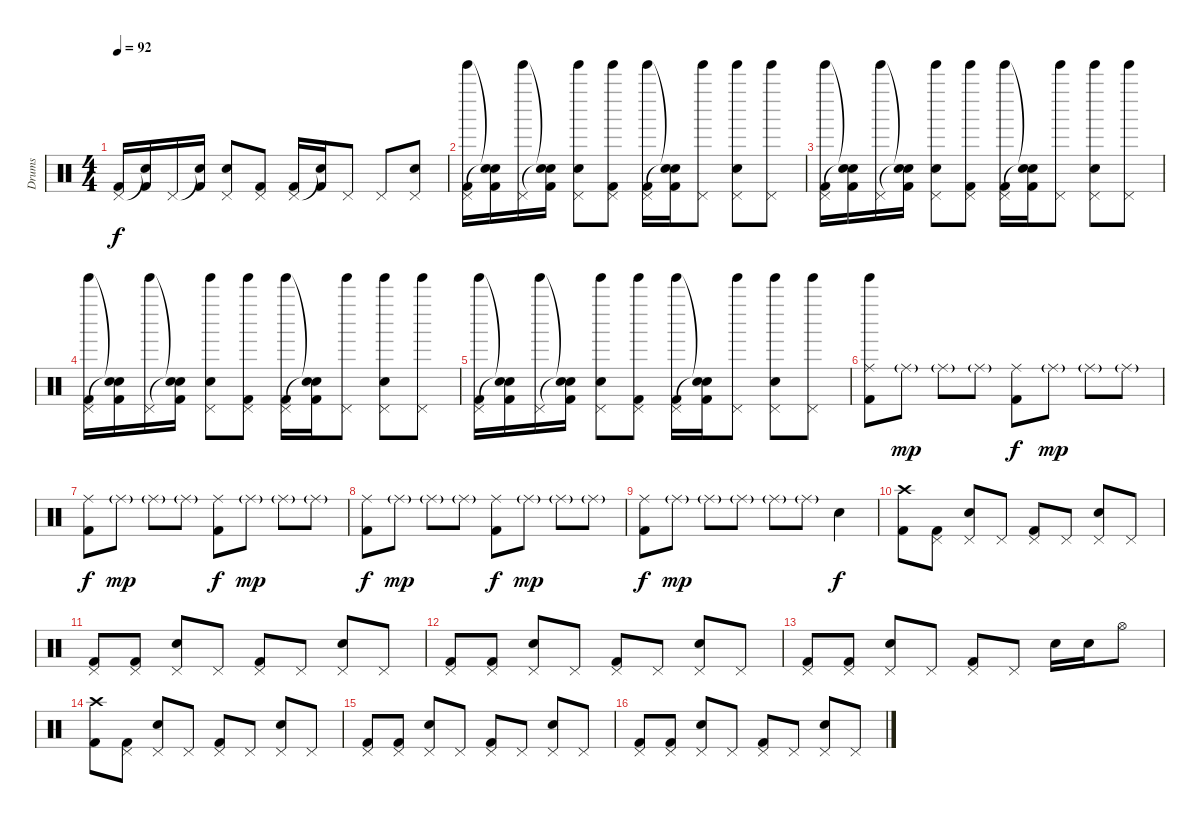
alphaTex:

\track ("Drums" "Drums") {instrument percussion}
\staff {score}
\articulation defaults
\ts (4 4)
\tempo 92
\clef neutral
\ks c
("Pedal Hi-Hat (hit)" "Kick (hit) 2").16{dy f} ("Snare (hit)"{t} "Kick (hit) 2").16 "Pedal Hi-Hat (hit)".16 ("Snare (hit)"{t} "Kick (hit) 2").16 ("Pedal Hi-Hat (hit)" "Electric Snare (hit)").8 ("Pedal Hi-Hat (hit)" "Kick (hit) 2").8 ("Pedal Hi-Hat (hit)" "Kick (hit) 2").16 ("Snare (hit)"{t} "Kick (hit) 2").16 "Pedal Hi-Hat (hit)".8 "Pedal Hi-Hat (hit)".8 ("Pedal Hi-Hat (hit)" "Electric Snare (hit)").8 |
("Tinkle Bell (hit)" "Pedal Hi-Hat (hit)" "Kick (hit) 2").16 ("Snare (hit)"{t} "Snare (hit)"{t} "Kick (hit) 2").16 ("Tinkle Bell (hit)" "Pedal Hi-Hat (hit)").16 ("Snare (hit)"{t} "Snare (hit)"{t} "Kick (hit) 2").16 ("Tinkle Bell (hit)" "Pedal Hi-Hat (hit)" "Electric Snare (hit)").8 ("Tinkle Bell (hit)" "Pedal Hi-Hat (hit)" "Kick (hit) 2").8 ("Tinkle Bell (hit)" "Pedal Hi-Hat (hit)" "Kick (hit) 2").16 ("Snare (hit)"{t} "Snare (hit)"{t} "Kick (hit) 2").16 ("Tinkle Bell (hit)" "Pedal Hi-Hat (hit)").8 ("Tinkle Bell (hit)" "Pedal Hi-Hat (hit)" "Electric Snare (hit)").8 ("Tinkle Bell (hit)" "Pedal Hi-Hat (hit)").8 |
("Tinkle Bell (hit)" "Pedal Hi-Hat (hit)" "Kick (hit) 2").16 ("Snare (hit)"{t} "Snare (hit)"{t} "Kick (hit) 2").16 ("Tinkle Bell (hit)" "Pedal Hi-Hat (hit)").16 ("Snare (hit)"{t} "Snare (hit)"{t} "Kick (hit) 2").16 ("Tinkle Bell (hit)" "Pedal Hi-Hat (hit)" "Electric Snare (hit)").8 ("Tinkle Bell (hit)" "Pedal Hi-Hat (hit)" "Kick (hit) 2").8 ("Tinkle Bell (hit)" "Pedal Hi-Hat (hit)" "Kick (hit) 2").16 ("Snare (hit)"{t} "Snare (hit)"{t} "Kick (hit) 2").16 ("Tinkle Bell (hit)" "Pedal Hi-Hat (hit)").8 ("Tinkle Bell (hit)" "Pedal Hi-Hat (hit)" "Electric Snare (hit)").8 ("Tinkle Bell (hit)" "Pedal Hi-Hat (hit)").8 |
("Tinkle Bell (hit)" "Pedal Hi-Hat (hit)" "Kick (hit) 2").16 ("Snare (hit)"{t} "Snare (hit)"{t} "Kick (hit) 2").16 ("Tinkle Bell (hit)" "Pedal Hi-Hat (hit)").16 ("Snare (hit)"{t} "Snare (hit)"{t} "Kick (hit) 2").16 ("Tinkle Bell (hit)" "Pedal Hi-Hat (hit)" "Electric Snare (hit)").8 ("Tinkle Bell (hit)" "Pedal Hi-Hat (hit)" "Kick (hit) 2").8 ("Tinkle Bell (hit)" "Pedal Hi-Hat (hit)" "Kick (hit) 2").16 ("Snare (hit)"{t} "Snare (hit)"{t} "Kick (hit) 2").16 ("Tinkle Bell (hit)" "Pedal Hi-Hat (hit)").8 ("Tinkle Bell (hit)" "Pedal Hi-Hat (hit)" "Electric Snare (hit)").8 ("Tinkle Bell (hit)" "Pedal Hi-Hat (hit)").8 |
("Tinkle Bell (hit)" "Pedal Hi-Hat (hit)" "Kick (hit) 2").16 ("Snare (hit)"{t} "Snare (hit)"{t} "Kick (hit) 2").16 ("Tinkle Bell (hit)" "Pedal Hi-Hat (hit)").16 ("Snare (hit)"{t} "Snare (hit)"{t} "Kick (hit) 2").16 ("Tinkle Bell (hit)" "Pedal Hi-Hat (hit)" "Electric Snare (hit)").8 ("Tinkle Bell (hit)" "Pedal Hi-Hat (hit)" "Kick (hit) 2").8 ("Tinkle Bell (hit)" "Pedal Hi-Hat (hit)" "Kick (hit) 2").16 ("Snare (hit)"{t} "Snare (hit)"{t} "Kick (hit) 2").16 ("Tinkle Bell (hit)" "Pedal Hi-Hat (hit)").8 ("Tinkle Bell (hit)" "Pedal Hi-Hat (hit)" "Electric Snare (hit)").8 ("Tinkle Bell (hit)" "Pedal Hi-Hat (hit)").8 |
("Tinkle Bell (hit)" "Ride (middle)" "Kick (hit) 2").8 "Ride (middle)"{g}.8{dy mp} "Ride (middle)"{g}.8 "Ride (middle)"{g}.8 ("Ride (middle)" "Kick (hit) 2").8{dy f} "Ride (middle)"{g}.8{dy mp} "Ride (middle)"{g}.8 "Ride (middle)"{g}.8 |
("Ride (middle)" "Kick (hit) 2").8{dy f} "Ride (middle)"{g}.8{dy mp} "Ride (middle)"{g}.8 "Ride (middle)"{g}.8 ("Ride (middle)" "Kick (hit) 2").8{dy f} "Ride (middle)"{g}.8{dy mp} "Ride (middle)"{g}.8 "Ride (middle)"{g}.8 |
("Ride (middle)" "Kick (hit) 2").8{dy f} "Ride (middle)"{g}.8{dy mp} "Ride (middle)"{g}.8 "Ride (middle)"{g}.8 ("Ride (middle)" "Kick (hit) 2").8{dy f} "Ride (middle)"{g}.8{dy mp} "Ride (middle)"{g}.8 "Ride (middle)"{g}.8 |
("Ride (middle)" "Kick (hit) 2").8{dy f} "Ride (middle)"{g}.8{dy mp} "Ride (middle)"{g}.8 "Ride (middle)"{g}.8 "Ride (middle)"{g}.8 "Ride (middle)"{g}.8 "Electric Snare (hit)".4{dy f} |
("Crash high (hit)" "Kick (hit) 2").8 ("Pedal Hi-Hat (hit)" "Kick (hit) 2").8 ("Pedal Hi-Hat (hit)" "Electric Snare (hit)").8 "Pedal Hi-Hat (hit)".8 ("Pedal Hi-Hat (hit)" "Kick (hit) 2").8 "Pedal Hi-Hat (hit)".8 ("Pedal Hi-Hat (hit)" "Electric Snare (hit)").8 "Pedal Hi-Hat (hit)".8 |
("Pedal Hi-Hat (hit)" "Kick (hit) 2").8 ("Pedal Hi-Hat (hit)" "Kick (hit) 2").8 ("Pedal Hi-Hat (hit)" "Electric Snare (hit)").8 "Pedal Hi-Hat (hit)".8 ("Pedal Hi-Hat (hit)" "Kick (hit) 2").8 "Pedal Hi-Hat (hit)".8 ("Pedal Hi-Hat (hit)" "Electric Snare (hit)").8 "Pedal Hi-Hat (hit)".8 |
("Pedal Hi-Hat (hit)" "Kick (hit) 2").8 ("Pedal Hi-Hat (hit)" "Kick (hit) 2").8 ("Pedal Hi-Hat (hit)" "Electric Snare (hit)").8 "Pedal Hi-Hat (hit)".8 ("Pedal Hi-Hat (hit)" "Kick (hit) 2").8 "Pedal Hi-Hat (hit)".8 ("Pedal Hi-Hat (hit)" "Electric Snare (hit)").8 "Pedal Hi-Hat (hit)".8 |
("Pedal Hi-Hat (hit)" "Kick (hit) 2").8 ("Pedal Hi-Hat (hit)" "Kick (hit) 2").8 ("Pedal Hi-Hat (hit)" "Electric Snare (hit)").8 "Pedal Hi-Hat (hit)".8 ("Pedal Hi-Hat (hit)" "Kick (hit) 2").8 "Pedal Hi-Hat (hit)".8 "Electric Snare (hit)".16 "Electric Snare (hit)".16 "Hi-Hat (open)".8 |
("Crash high (hit)" "Kick (hit) 2").8 ("Pedal Hi-Hat (hit)" "Kick (hit) 2").8 ("Pedal Hi-Hat (hit)" "Electric Snare (hit)").8 "Pedal Hi-Hat (hit)".8 ("Pedal Hi-Hat (hit)" "Kick (hit) 2").8 "Pedal Hi-Hat (hit)".8 ("Pedal Hi-Hat (hit)" "Electric Snare (hit)").8 "Pedal Hi-Hat (hit)".8 |
("Pedal Hi-Hat (hit)" "Kick (hit) 2").8 ("Pedal Hi-Hat (hit)" "Kick (hit) 2").8 ("Pedal Hi-Hat (hit)" "Electric Snare (hit)").8 "Pedal Hi-Hat (hit)".8 ("Pedal Hi-Hat (hit)" "Kick (hit) 2").8 "Pedal Hi-Hat (hit)".8 ("Pedal Hi-Hat (hit)" "Electric Snare (hit)").8 "Pedal Hi-Hat (hit)".8 |
("Pedal Hi-Hat (hit)" "Kick (hit) 2").8 ("Pedal Hi-Hat (hit)" "Kick (hit) 2").8 ("Pedal Hi-Hat (hit)" "Electric Snare (hit)").8 "Pedal Hi-Hat (hit)".8 ("Pedal Hi-Hat (hit)" "Kick (hit) 2").8 "Pedal Hi-Hat (hit)".8 ("Pedal Hi-Hat (hit)" "Electric Snare (hit)").8 "Pedal Hi-Hat (hit)".8
